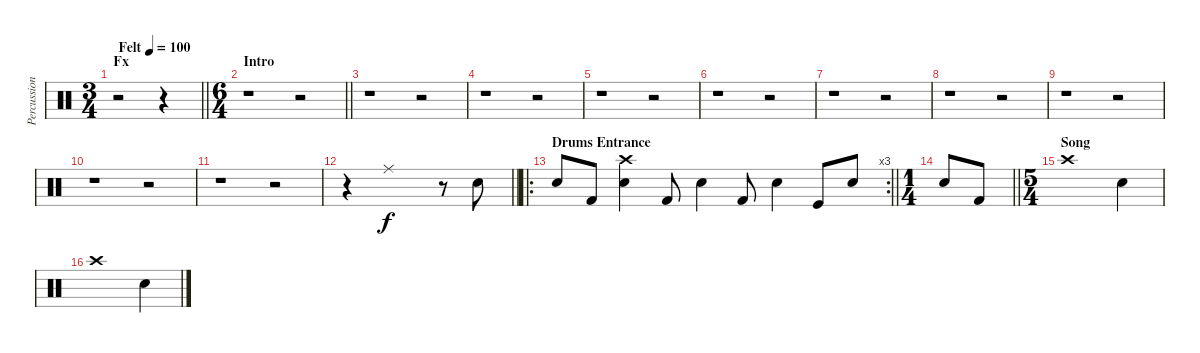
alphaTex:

\track ("Percussion" "Percussion") {instrument percussion}
\staff {score}
\articulation defaults
\ts (3 4)
\section ("" "Fx")
\tempo (100 "Felt")
\clef neutral
\barLineRight lightlight
\ks c
r.2{dy f} r.4 |
\ts (6 4)
\section ("" "Intro")
\barLineRight lightlight
r.1 r.2 |
\section ("" "")
r.1 r.2 |
r.1 r.2 |
r.1 r.2 |
r.1 r.2 |
r.1 r.2 |
r.1 r.2 |
r.1 r.2 |
r.1 r.2 |
r.1 r.2 |
\barLineRight lightlight
r.4 "Ride (middle)".1{volume 16} r.8 "Snare (hit) 2".8 |
\ro
\rc 3
\section ("" "Drums Entrance")
\barLineRight lightlight "Snare (hit) 2".8 "Kick (hit) 2".8
("Crash high (hit)" "Snare (hit) 2").4 "Kick (hit) 2".8 "Snare (hit) 2".4 "Kick (hit) 2".8 "Snare (hit) 2".4 "Kick (hit)".8 "Snare (hit) 2".8 |
\ts (1 4)
\barLineRight lightlight "Snare (hit) 2".8 "Kick (hit) 2".8
|
\ts (5 4)
\section ("" "Song")
"Crash high (hit)".1 "Snare (hit) 2".4 |
"Crash high (hit)".1 "Snare (hit) 2".4
